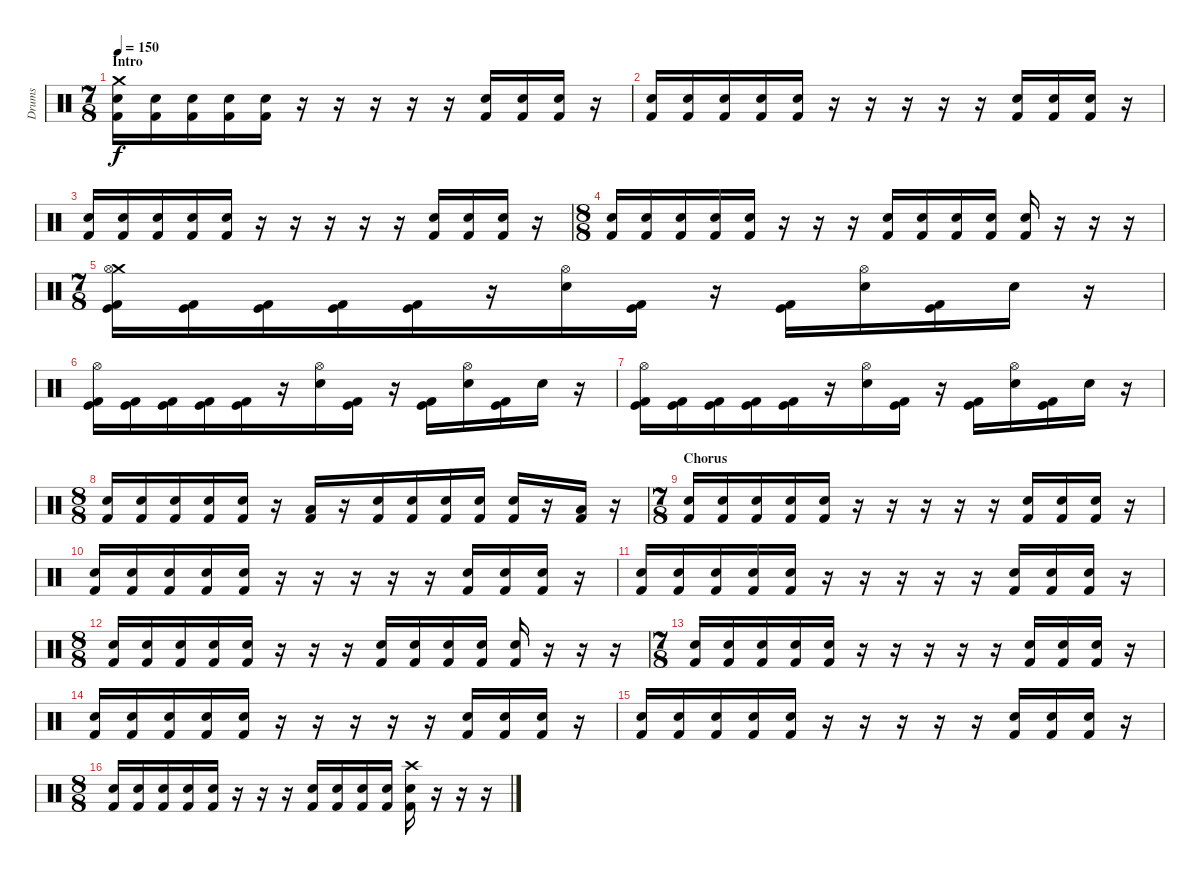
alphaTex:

\track ("Drums" "Drums") {instrument percussion}
\staff {score}
\articulation defaults
\ts (7 8)
\section ("" "Intro")
\tempo 150
\clef neutral
\ks c
("Crash medium (hit)" "Electric Snare (hit)" "Kick (hit) 2").16{dy f} ("Electric Snare (hit)" "Kick (hit) 2").16 ("Electric Snare (hit)" "Kick (hit) 2").16 ("Electric Snare (hit)" "Kick (hit) 2").16 ("Electric Snare (hit)" "Kick (hit) 2").16 r.16 r.16 r.16 r.16 r.16 ("Electric Snare (hit)" "Kick (hit) 2").16 ("Electric Snare (hit)" "Kick (hit) 2").16 ("Electric Snare (hit)" "Kick (hit) 2").16 r.16 |
("Electric Snare (hit)" "Kick (hit) 2").16 ("Electric Snare (hit)" "Kick (hit) 2").16 ("Electric Snare (hit)" "Kick (hit) 2").16 ("Electric Snare (hit)" "Kick (hit) 2").16 ("Electric Snare (hit)" "Kick (hit) 2").16 r.16 r.16 r.16 r.16 r.16 ("Electric Snare (hit)" "Kick (hit) 2").16 ("Electric Snare (hit)" "Kick (hit) 2").16 ("Electric Snare (hit)" "Kick (hit) 2").16 r.16 |
("Electric Snare (hit)" "Kick (hit) 2").16 ("Electric Snare (hit)" "Kick (hit) 2").16 ("Electric Snare (hit)" "Kick (hit) 2").16 ("Electric Snare (hit)" "Kick (hit) 2").16 ("Electric Snare (hit)" "Kick (hit) 2").16 r.16 r.16 r.16 r.16 r.16 ("Electric Snare (hit)" "Kick (hit) 2").16 ("Electric Snare (hit)" "Kick (hit) 2").16 ("Electric Snare (hit)" "Kick (hit) 2").16 r.16 |
\ts (8 8)
("Electric Snare (hit)" "Kick (hit) 2").16 ("Electric Snare (hit)" "Kick (hit) 2").16 ("Electric Snare (hit)" "Kick (hit) 2").16 ("Electric Snare (hit)" "Kick (hit) 2").16 ("Electric Snare (hit)" "Kick (hit) 2").16 r.16 r.16 r.16 ("Electric Snare (hit)" "Kick (hit) 2").16 ("Electric Snare (hit)" "Kick (hit) 2").16 ("Electric Snare (hit)" "Kick (hit) 2").16 ("Electric Snare (hit)" "Kick (hit) 2").16 ("Electric Snare (hit)" "Kick (hit) 2").16 r.16 r.16 r.16 |
\ts (7 8)
("Crash medium (hit)" "Hi-Hat (open)" "Kick (hit) 2" "Kick (hit)").16 ("Kick (hit) 2" "Kick (hit)").16 ("Kick (hit) 2" "Kick (hit)").16 ("Kick (hit) 2" "Kick (hit)").16 ("Kick (hit)" "Kick (hit) 2").16 r.16 ("Hi-Hat (open)" "Electric Snare (hit)").16 ("Kick (hit)" "Kick (hit) 2").16 r.16 ("Kick (hit)" "Kick (hit) 2").16 ("Hi-Hat (open)" "Electric Snare (hit)").16 ("Kick (hit) 2" "Kick (hit)").16 "Electric Snare (hit)".16 r.16 |
("Hi-Hat (open)" "Kick (hit) 2" "Kick (hit)").16 ("Kick (hit) 2" "Kick (hit)").16 ("Kick (hit) 2" "Kick (hit)").16 ("Kick (hit) 2" "Kick (hit)").16 ("Kick (hit)" "Kick (hit) 2").16 r.16 ("Hi-Hat (open)" "Electric Snare (hit)").16 ("Kick (hit)" "Kick (hit) 2").16 r.16 ("Kick (hit)" "Kick (hit) 2").16 ("Hi-Hat (open)" "Electric Snare (hit)").16 ("Kick (hit) 2" "Kick (hit)").16 "Electric Snare (hit)".16 r.16 |
("Hi-Hat (open)" "Kick (hit) 2" "Kick (hit)").16 ("Kick (hit) 2" "Kick (hit)").16 ("Kick (hit) 2" "Kick (hit)").16 ("Kick (hit) 2" "Kick (hit)").16 ("Kick (hit)" "Kick (hit) 2").16 r.16 ("Hi-Hat (open)" "Electric Snare (hit)").16 ("Kick (hit)" "Kick (hit) 2").16 r.16 ("Kick (hit)" "Kick (hit) 2").16 ("Hi-Hat (open)" "Electric Snare (hit)").16 ("Kick (hit) 2" "Kick (hit)").16 "Electric Snare (hit)".16 r.16 |
\ts (8 8)
("Electric Snare (hit)" "Kick (hit) 2").16 ("Electric Snare (hit)" "Kick (hit) 2").16 ("Electric Snare (hit)" "Kick (hit) 2").16 ("Electric Snare (hit)" "Kick (hit) 2").16 ("Electric Snare (hit)" "Kick (hit) 2").16 r.16 ("Low Floor Tom (hit)" "Kick (hit) 2").16 r.16 ("Electric Snare (hit)" "Kick (hit) 2").16 ("Electric Snare (hit)" "Kick (hit) 2").16 ("Electric Snare (hit)" "Kick (hit) 2").16 ("Electric Snare (hit)" "Kick (hit) 2").16 ("Electric Snare (hit)" "Kick (hit) 2").16 r.16 ("Low Floor Tom (hit)" "Kick (hit) 2").16 r.16 |
\ts (7 8)
\section ("" "Chorus")
("Electric Snare (hit)" "Kick (hit) 2").16 ("Electric Snare (hit)" "Kick (hit) 2").16 ("Electric Snare (hit)" "Kick (hit) 2").16 ("Electric Snare (hit)" "Kick (hit) 2").16 ("Electric Snare (hit)" "Kick (hit) 2").16 r.16 r.16 r.16 r.16 r.16 ("Electric Snare (hit)" "Kick (hit) 2").16 ("Electric Snare (hit)" "Kick (hit) 2").16 ("Electric Snare (hit)" "Kick (hit) 2").16 r.16 |
("Electric Snare (hit)" "Kick (hit) 2").16 ("Electric Snare (hit)" "Kick (hit) 2").16 ("Electric Snare (hit)" "Kick (hit) 2").16 ("Electric Snare (hit)" "Kick (hit) 2").16 ("Electric Snare (hit)" "Kick (hit) 2").16 r.16 r.16 r.16 r.16 r.16 ("Electric Snare (hit)" "Kick (hit) 2").16 ("Electric Snare (hit)" "Kick (hit) 2").16 ("Electric Snare (hit)" "Kick (hit) 2").16 r.16 |
("Electric Snare (hit)" "Kick (hit) 2").16 ("Electric Snare (hit)" "Kick (hit) 2").16 ("Electric Snare (hit)" "Kick (hit) 2").16 ("Electric Snare (hit)" "Kick (hit) 2").16 ("Electric Snare (hit)" "Kick (hit) 2").16 r.16 r.16 r.16 r.16 r.16 ("Electric Snare (hit)" "Kick (hit) 2").16 ("Electric Snare (hit)" "Kick (hit) 2").16 ("Electric Snare (hit)" "Kick (hit) 2").16 r.16 |
\ts (8 8)
("Electric Snare (hit)" "Kick (hit) 2").16 ("Electric Snare (hit)" "Kick (hit) 2").16 ("Electric Snare (hit)" "Kick (hit) 2").16 ("Electric Snare (hit)" "Kick (hit) 2").16 ("Electric Snare (hit)" "Kick (hit) 2").16 r.16 r.16 r.16 ("Electric Snare (hit)" "Kick (hit) 2").16 ("Electric Snare (hit)" "Kick (hit) 2").16 ("Electric Snare (hit)" "Kick (hit) 2").16 ("Electric Snare (hit)" "Kick (hit) 2").16 ("Electric Snare (hit)" "Kick (hit) 2").16 r.16 r.16 r.16 |
\ts (7 8)
("Electric Snare (hit)" "Kick (hit) 2").16 ("Electric Snare (hit)" "Kick (hit) 2").16 ("Electric Snare (hit)" "Kick (hit) 2").16 ("Electric Snare (hit)" "Kick (hit) 2").16 ("Electric Snare (hit)" "Kick (hit) 2").16 r.16 r.16 r.16 r.16 r.16 ("Electric Snare (hit)" "Kick (hit) 2").16 ("Electric Snare (hit)" "Kick (hit) 2").16 ("Electric Snare (hit)" "Kick (hit) 2").16 r.16 |
("Electric Snare (hit)" "Kick (hit) 2").16 ("Electric Snare (hit)" "Kick (hit) 2").16 ("Electric Snare (hit)" "Kick (hit) 2").16 ("Electric Snare (hit)" "Kick (hit) 2").16 ("Electric Snare (hit)" "Kick (hit) 2").16 r.16 r.16 r.16 r.16 r.16 ("Electric Snare (hit)" "Kick (hit) 2").16 ("Electric Snare (hit)" "Kick (hit) 2").16 ("Electric Snare (hit)" "Kick (hit) 2").16 r.16 |
("Electric Snare (hit)" "Kick (hit) 2").16 ("Electric Snare (hit)" "Kick (hit) 2").16 ("Electric Snare (hit)" "Kick (hit) 2").16 ("Electric Snare (hit)" "Kick (hit) 2").16 ("Electric Snare (hit)" "Kick (hit) 2").16 r.16 r.16 r.16 r.16 r.16 ("Electric Snare (hit)" "Kick (hit) 2").16 ("Electric Snare (hit)" "Kick (hit) 2").16 ("Electric Snare (hit)" "Kick (hit) 2").16 r.16 |
\ts (8 8)
("Electric Snare (hit)" "Kick (hit) 2").16 ("Electric Snare (hit)" "Kick (hit) 2").16 ("Electric Snare (hit)" "Kick (hit) 2").16 ("Electric Snare (hit)" "Kick (hit) 2").16 ("Electric Snare (hit)" "Kick (hit) 2").16 r.16 r.16 r.16 ("Electric Snare (hit)" "Kick (hit) 2").16 ("Electric Snare (hit)" "Kick (hit) 2").16 ("Electric Snare (hit)" "Kick (hit) 2").16 ("Electric Snare (hit)" "Kick (hit) 2").16 ("Crash high (hit)" "Electric Snare (hit)" "Kick (hit) 2").16 r.16 r.16 r.16
